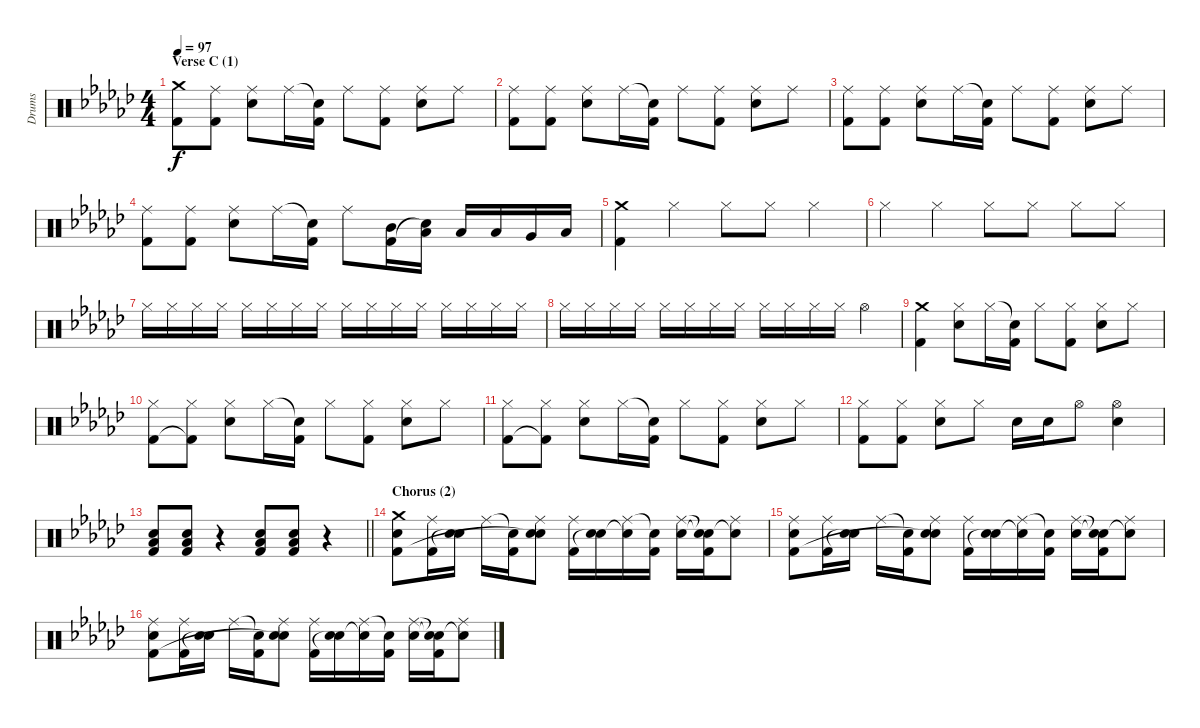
\track ("Drums" "Drums") {instrument percussion}
\staff {score}
\articulation defaults
\ts (4 4)
\section ("" "Verse C (1)")
\tempo 97
\clef neutral
\ks ebminor
("Crash medium (hit)" "Kick (hit) 2").8{dy f} ("Ride (middle)" "Kick (hit) 2").8 ("Ride (middle)" "Electric Snare (hit)").8 "Ride (middle)".16 ("Snare (hit)"{t} "Kick (hit) 2").16 "Ride (middle)".8 ("Ride (middle)" "Kick (hit) 2").8 ("Ride (middle)" "Electric Snare (hit)").8 "Ride (middle)".8 |
("Ride (middle)" "Kick (hit) 2").8 ("Ride (middle)" "Kick (hit) 2").8 ("Ride (middle)" "Electric Snare (hit)").8 "Ride (middle)".16 ("Snare (hit)"{t} "Kick (hit) 2").16 "Ride (middle)".8 ("Ride (middle)" "Kick (hit) 2").8 ("Ride (middle)" "Electric Snare (hit)").8 "Ride (middle)".8 |
("Ride (middle)" "Kick (hit) 2").8 ("Ride (middle)" "Kick (hit) 2").8 ("Ride (middle)" "Electric Snare (hit)").8 "Ride (middle)".16 ("Snare (hit)"{t} "Kick (hit) 2").16 "Ride (middle)".8 ("Ride (middle)" "Kick (hit) 2").8 ("Ride (middle)" "Electric Snare (hit)").8 "Ride (middle)".8 |
("Ride (middle)" "Kick (hit) 2").8 ("Ride (middle)" "Kick (hit) 2").8 ("Ride (middle)" "Electric Snare (hit)").8 "Ride (middle)".16 ("Snare (hit)"{t} "Kick (hit) 2").16 "Ride (middle)".8 ("Mid Tom (hit)" "Kick (hit) 2").16 ("Low Tom (hit)" "Snare (hit)"{t}).16 "Low Tom (hit)".16 "Low Tom (hit)".16 "Very Low Tom (hit)".16 "Low Floor Tom (hit)".16 |
("Crash medium (hit)" "Kick (hit) 2").4 "Hi-Hat (closed)".4 "Hi-Hat (closed)".8 "Hi-Hat (closed)".8 "Hi-Hat (closed)".4 |
"Hi-Hat (closed)".4 "Hi-Hat (closed)".4 "Hi-Hat (closed)".8 "Hi-Hat (closed)".8 "Hi-Hat (closed)".8 "Hi-Hat (closed)".8 |
"Hi-Hat (closed)".16 "Hi-Hat (closed)".16 "Hi-Hat (closed)".16 "Hi-Hat (closed)".16 "Hi-Hat (closed)".16 "Hi-Hat (closed)".16 "Hi-Hat (closed)".16 "Hi-Hat (closed)".16 "Hi-Hat (closed)".16 "Hi-Hat (closed)".16 "Hi-Hat (closed)".16 "Hi-Hat (closed)".16 "Hi-Hat (closed)".16 "Hi-Hat (closed)".16 "Hi-Hat (closed)".16 "Hi-Hat (closed)".16 |
"Hi-Hat (closed)".16 "Hi-Hat (closed)".16 "Hi-Hat (closed)".16 "Hi-Hat (closed)".16 "Hi-Hat (closed)".16 "Hi-Hat (closed)".16 "Hi-Hat (closed)".16 "Hi-Hat (closed)".16 "Hi-Hat (closed)".16 "Hi-Hat (closed)".16 "Hi-Hat (closed)".16 "Hi-Hat (closed)".16 "Hi-Hat (open)".4 |
("Crash medium (hit)" "Kick (hit) 2").4 ("Hi-Hat (closed)" "Electric Snare (hit)").8 "Hi-Hat (closed)".16 ("Snare (hit)"{t} "Kick (hit) 2").16 "Hi-Hat (closed)".8 ("Hi-Hat (closed)" "Kick (hit) 2").8 ("Hi-Hat (closed)" "Electric Snare (hit)").8 "Hi-Hat (closed)".8 |
("Hi-Hat (closed)" "Kick (hit) 2").8 ("Hi-Hat (closed)" "Kick (hit) 2"{t}).8 ("Hi-Hat (closed)" "Electric Snare (hit)").8 "Hi-Hat (closed)".16 ("Snare (hit)"{t} "Kick (hit) 2").16 "Hi-Hat (closed)".8 ("Hi-Hat (closed)" "Kick (hit) 2").8 ("Hi-Hat (closed)" "Electric Snare (hit)").8 "Hi-Hat (closed)".8 |
("Hi-Hat (closed)" "Kick (hit) 2").8 ("Hi-Hat (closed)" "Kick (hit) 2"{t}).8 ("Hi-Hat (closed)" "Electric Snare (hit)").8 "Hi-Hat (closed)".16 ("Snare (hit)"{t} "Kick (hit) 2").16 "Hi-Hat (closed)".8 ("Hi-Hat (closed)" "Kick (hit) 2").8 ("Hi-Hat (closed)" "Electric Snare (hit)").8 "Hi-Hat (closed)".8 |
("Hi-Hat (closed)" "Kick (hit) 2").8 ("Hi-Hat (closed)" "Kick (hit) 2").8 ("Hi-Hat (closed)" "Electric Snare (hit)").8 "Hi-Hat (closed)".8 "Electric Snare (hit)".16 "Electric Snare (hit)".16 "Hi-Hat (open)".8 ("Hi-Hat (open)" "Electric Snare (hit)").4 |
\barLineRight lightlight
("Electric Snare (hit)" "Low Floor Tom (hit)" "Kick (hit) 2").8 ("Electric Snare (hit)" "Low Floor Tom (hit)" "Kick (hit) 2").8 r.4 ("Electric Snare (hit)" "Low Floor Tom (hit)" "Kick (hit) 2").8 ("Electric Snare (hit)" "Low Floor Tom (hit)" "Kick (hit) 2").8 r.4 |
\section ("" "Chorus (2)")
("Crash medium (hit)" "Electric Snare (hit)" "Kick (hit) 2").8 ("Ride (middle)" "Kick (hit) 2").16 ("Electric Snare (hit)" "Snare (hit)"{t}).16 "Ride (middle)".16 ("Snare (hit)"{t} "Kick (hit) 2").16 ("Ride (middle)" "Electric Snare (hit)" "Snare (hit)"{t}).8 ("Ride (middle)" "Kick (hit) 2").16 ("Electric Snare (hit)" "Snare (hit)"{t}).16 ("Ride (middle)" "Snare (hit)"{t}).16 ("Snare (hit)"{t} "Kick (hit) 2").16 ("Ride (middle)" "Electric Snare (hit)").16 ("Snare (hit)"{t} "Snare (hit)"{t} "Kick (hit) 2").16 ("Ride (middle)" "Snare (hit)"{t}).8 |
("Ride (middle)" "Electric Snare (hit)" "Kick (hit) 2").8 ("Ride (middle)" "Kick (hit) 2").16 ("Electric Snare (hit)" "Snare (hit)"{t}).16 "Ride (middle)".16 ("Snare (hit)"{t} "Kick (hit) 2").16 ("Ride (middle)" "Electric Snare (hit)" "Snare (hit)"{t}).8 ("Ride (middle)" "Kick (hit) 2").16 ("Electric Snare (hit)" "Snare (hit)"{t}).16 ("Ride (middle)" "Snare (hit)"{t}).16 ("Snare (hit)"{t} "Kick (hit) 2").16 ("Ride (middle)" "Electric Snare (hit)").16 ("Snare (hit)"{t} "Snare (hit)"{t} "Kick (hit) 2").16 ("Ride (middle)" "Snare (hit)"{t}).8 |
("Ride (middle)" "Electric Snare (hit)" "Kick (hit) 2").8 ("Ride (middle)" "Kick (hit) 2").16 ("Electric Snare (hit)" "Snare (hit)"{t}).16 "Ride (middle)".16 ("Snare (hit)"{t} "Kick (hit) 2").16 ("Ride (middle)" "Electric Snare (hit)" "Snare (hit)"{t}).8 ("Ride (middle)" "Kick (hit) 2").16 ("Electric Snare (hit)" "Snare (hit)"{t}).16 ("Ride (middle)" "Snare (hit)"{t}).16 ("Snare (hit)"{t} "Kick (hit) 2").16 ("Ride (middle)" "Electric Snare (hit)").16 ("Snare (hit)"{t} "Snare (hit)"{t} "Kick (hit) 2").16 ("Ride (middle)" "Snare (hit)"{t}).8
